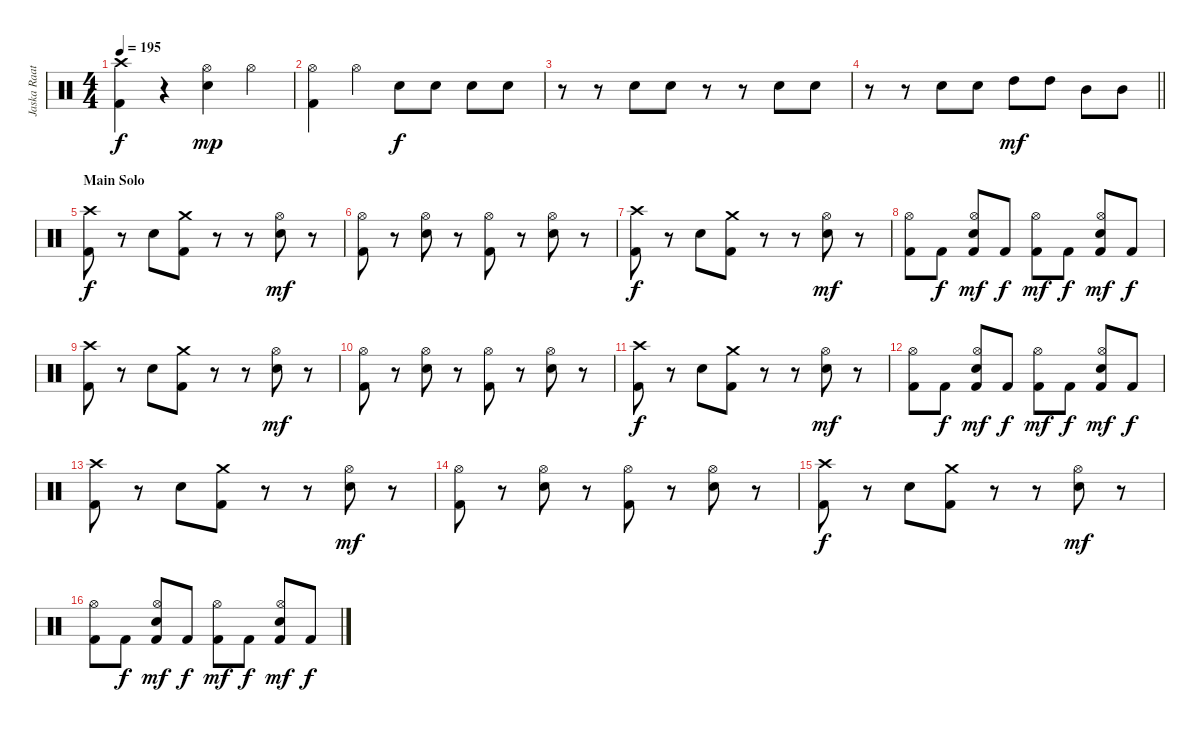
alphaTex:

\track ("Jaska Raatikainen" "Jaska Raat") {instrument percussion}
\staff {score}
\articulation defaults
\ts (4 4)
\tempo 195
\clef neutral
\ks c
("Crash high (hit)" "Kick (hit) 2").4{dy f} r.4 ("Hi-Hat (open)" "Electric Snare (hit)").4{dy mp} "Hi-Hat (open)".4 |
("Hi-Hat (open)" "Kick (hit) 2").4 "Hi-Hat (open)".4 "Electric Snare (hit)".8{dy f} "Electric Snare (hit)".8 "Electric Snare (hit)".8 "Electric Snare (hit)".8 |
r.8 r.8 "Electric Snare (hit)".8 "Electric Snare (hit)".8 r.8 r.8 "Electric Snare (hit)".8 "Electric Snare (hit)".8 |
\barLineRight lightlight
r.8 r.8 "Electric Snare (hit)".8 "Electric Snare (hit)".8 "High Tom (hit)".8{dy mf} "High Tom (hit)".8 "Mid Tom (hit)".8 "Mid Tom (hit)".8 |
\section ("" "Main Solo")
("Crash high (hit)" "Kick (hit) 2").8{dy f} r.8 "Electric Snare (hit)".8 ("Crash medium (hit)" "Kick (hit) 2").8 r.8 r.8 ("Hi-Hat (open)" "Electric Snare (hit)").8{dy mf} r.8 |
("Hi-Hat (open)" "Kick (hit) 2").8 r.8 ("Hi-Hat (open)" "Electric Snare (hit)").8 r.8 ("Hi-Hat (open)" "Kick (hit) 2").8 r.8 ("Hi-Hat (open)" "Electric Snare (hit)").8 r.8 |
("Crash high (hit)" "Kick (hit) 2").8{dy f} r.8 "Electric Snare (hit)".8 ("Crash medium (hit)" "Kick (hit) 2").8 r.8 r.8 ("Hi-Hat (open)" "Electric Snare (hit)").8{dy mf} r.8 |
("Hi-Hat (open)" "Kick (hit) 2").8 "Kick (hit) 2".8{dy f} ("Hi-Hat (open)" "Electric Snare (hit)" "Kick (hit) 2").8{dy mf} "Kick (hit) 2".8{dy f} ("Hi-Hat (open)" "Kick (hit) 2").8{dy mf} "Kick (hit) 2".8{dy f} ("Hi-Hat (open)" "Electric Snare (hit)" "Kick (hit) 2").8{dy mf} "Kick (hit) 2".8{dy f} |
("Crash high (hit)" "Kick (hit) 2").8 r.8 "Electric Snare (hit)".8 ("Crash medium (hit)" "Kick (hit) 2").8 r.8 r.8 ("Hi-Hat (open)" "Electric Snare (hit)").8{dy mf} r.8 |
("Hi-Hat (open)" "Kick (hit) 2").8 r.8 ("Hi-Hat (open)" "Electric Snare (hit)").8 r.8 ("Hi-Hat (open)" "Kick (hit) 2").8 r.8 ("Hi-Hat (open)" "Electric Snare (hit)").8 r.8 |
("Crash high (hit)" "Kick (hit) 2").8{dy f} r.8 "Electric Snare (hit)".8 ("Crash medium (hit)" "Kick (hit) 2").8 r.8 r.8 ("Hi-Hat (open)" "Electric Snare (hit)").8{dy mf} r.8 |
("Hi-Hat (open)" "Kick (hit) 2").8 "Kick (hit) 2".8{dy f} ("Hi-Hat (open)" "Electric Snare (hit)" "Kick (hit) 2").8{dy mf} "Kick (hit) 2".8{dy f} ("Hi-Hat (open)" "Kick (hit) 2").8{dy mf} "Kick (hit) 2".8{dy f} ("Hi-Hat (open)" "Electric Snare (hit)" "Kick (hit) 2").8{dy mf} "Kick (hit) 2".8{dy f} |
("Crash high (hit)" "Kick (hit) 2").8 r.8 "Electric Snare (hit)".8 ("Crash medium (hit)" "Kick (hit) 2").8 r.8 r.8 ("Hi-Hat (open)" "Electric Snare (hit)").8{dy mf} r.8 |
("Hi-Hat (open)" "Kick (hit) 2").8 r.8 ("Hi-Hat (open)" "Electric Snare (hit)").8 r.8 ("Hi-Hat (open)" "Kick (hit) 2").8 r.8 ("Hi-Hat (open)" "Electric Snare (hit)").8 r.8 |
("Crash high (hit)" "Kick (hit) 2").8{dy f} r.8 "Electric Snare (hit)".8 ("Crash medium (hit)" "Kick (hit) 2").8 r.8 r.8 ("Hi-Hat (open)" "Electric Snare (hit)").8{dy mf} r.8 |
("Hi-Hat (open)" "Kick (hit) 2").8 "Kick (hit) 2".8{dy f} ("Hi-Hat (open)" "Electric Snare (hit)" "Kick (hit) 2").8{dy mf} "Kick (hit) 2".8{dy f} ("Hi-Hat (open)" "Kick (hit) 2").8{dy mf} "Kick (hit) 2".8{dy f} ("Hi-Hat (open)" "Electric Snare (hit)" "Kick (hit) 2").8{dy mf} "Kick (hit) 2".8{dy f}
